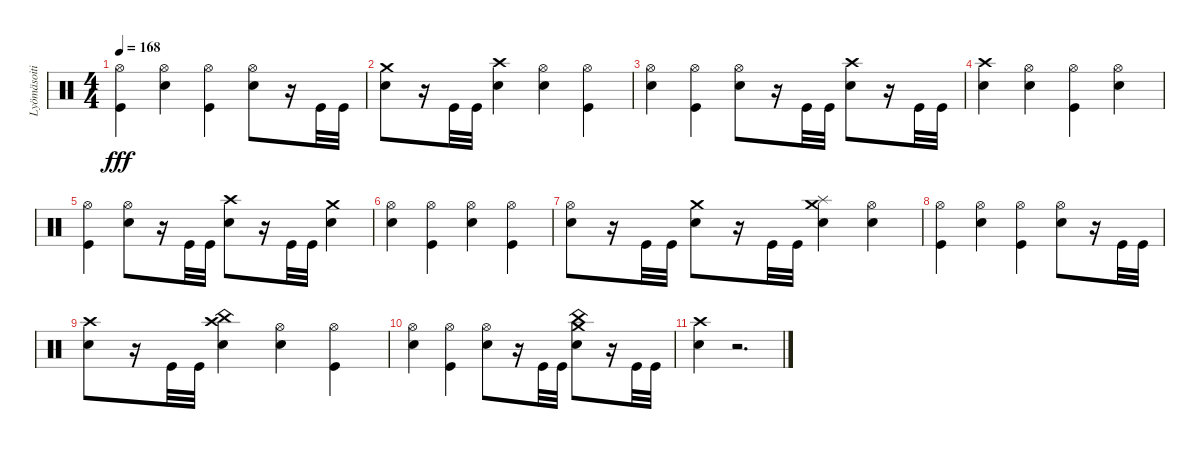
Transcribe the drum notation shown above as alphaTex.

\track ("Lyömäsoitin" "Lyömäsoiti") {instrument percussion}
\staff {score}
\articulation defaults
\ts (4 4)
\tempo 168
\clef neutral
\ks c
("Hi-Hat (open)" "Kick (hit)").4{dy fff} ("Hi-Hat (open)" "Electric Snare (hit)").4 ("Hi-Hat (open)" "Kick (hit)").4 ("Hi-Hat (open)" "Electric Snare (hit)").8 r.16 "Kick (hit)".32 "Kick (hit)".32 |
("Crash medium (hit)" "Electric Snare (hit)").8 r.16 "Kick (hit)".32 "Kick (hit)".32 ("Crash high (hit)" "Electric Snare (hit)").4 ("Hi-Hat (open)" "Electric Snare (hit)").4 ("Hi-Hat (open)" "Kick (hit)").4 |
("Hi-Hat (open)" "Electric Snare (hit)").4 ("Hi-Hat (open)" "Kick (hit)").4 ("Hi-Hat (open)" "Electric Snare (hit)").8 r.16 "Kick (hit)".32 "Kick (hit)".32 ("Crash high (hit)" "Electric Snare (hit)").8 r.16 "Kick (hit)".32 "Kick (hit)".32 |
("Crash high (hit)" "Electric Snare (hit)").4 ("Hi-Hat (open)" "Electric Snare (hit)").4 ("Hi-Hat (open)" "Kick (hit)").4 ("Hi-Hat (open)" "Electric Snare (hit)").4 |
("Hi-Hat (open)" "Kick (hit)").4 ("Hi-Hat (open)" "Electric Snare (hit)").8 r.16 "Kick (hit)".32 "Kick (hit)".32 ("Crash high (hit)" "Electric Snare (hit)").8 r.16 "Kick (hit)".32 "Kick (hit)".32 ("Crash medium (hit)" "Electric Snare (hit)").4 |
("Hi-Hat (open)" "Electric Snare (hit)").4 ("Hi-Hat (open)" "Kick (hit)").4 ("Hi-Hat (open)" "Electric Snare (hit)").4 ("Hi-Hat (open)" "Kick (hit)").4 |
("Hi-Hat (open)" "Electric Snare (hit)").8 r.16 "Kick (hit)".32 "Kick (hit)".32 ("Crash medium (hit)" "Electric Snare (hit)").8 r.16 "Kick (hit)".32 "Kick (hit)".32 ("Crash medium (hit)" "Splash (hit)" "Electric Snare (hit)").4 ("Hi-Hat (open)" "Electric Snare (hit)").4 |
("Hi-Hat (open)" "Kick (hit)").4 ("Hi-Hat (open)" "Electric Snare (hit)").4 ("Hi-Hat (open)" "Kick (hit)").4 ("Hi-Hat (open)" "Electric Snare (hit)").8 r.16 "Kick (hit)".32 "Kick (hit)".32 |
("Crash high (hit)" "Electric Snare (hit)").8 r.16 "Kick (hit)".32 "Kick (hit)".32 ("Crash high (hit)" "China (hit)" "Electric Snare (hit)").4 ("Hi-Hat (open)" "Electric Snare (hit)").4 ("Hi-Hat (open)" "Kick (hit)").4 |
("Hi-Hat (open)" "Electric Snare (hit)").4 ("Hi-Hat (open)" "Kick (hit)").4 ("Hi-Hat (open)" "Electric Snare (hit)").8 r.16 "Kick (hit)".32 "Kick (hit)".32 ("Crash medium (hit)" "China (hit)" "Electric Snare (hit)").8 r.16 "Kick (hit)".32 "Kick (hit)".32 |
("Crash high (hit)" "Electric Snare (hit)").4 r.2{d}
